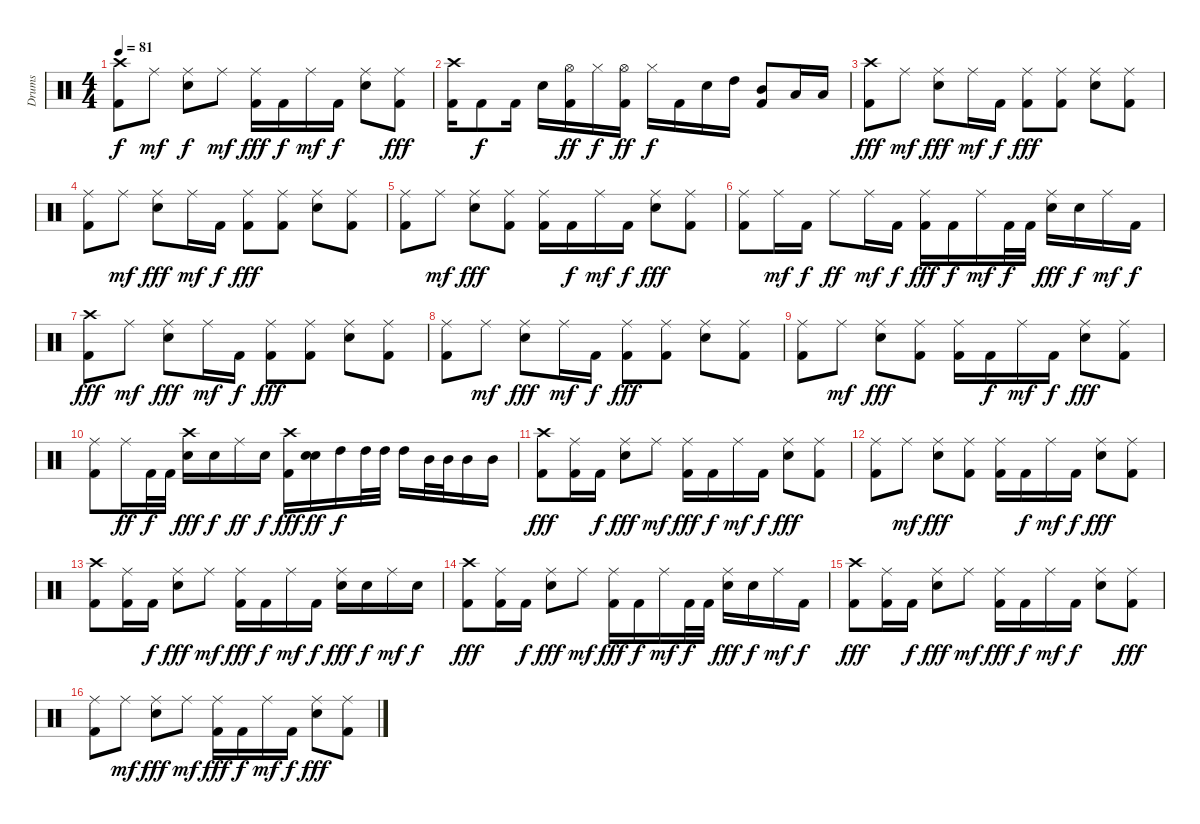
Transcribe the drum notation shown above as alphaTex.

\track ("Drums" "Drums") {instrument percussion}
\staff {score}
\articulation defaults
\ts (4 4)
\tempo 81
\clef neutral
\ks c
("Crash high (hit)" "Kick (hit) 2").8{dy f} "Ride (middle)".8{dy mf} ("Ride (middle)" "Electric Snare (hit)").8{dy f} "Ride (middle)".8{dy mf} ("Ride (middle)" "Kick (hit) 2").16{dy fff} "Kick (hit) 2".16{dy f} "Ride (middle)".16{dy mf} "Kick (hit) 2".16{dy f} ("Ride (middle)" "Electric Snare (hit)").8 ("Ride (middle)" "Kick (hit) 2").8{dy fff} |
("Crash high (hit)" "Kick (hit) 2").16 "Kick (hit) 2".8{dy f} "Kick (hit) 2".16 "Snare (hit)".16 ("Hi-Hat (open)" "Kick (hit) 2").16{dy ff} "Hi-Hat (closed)".16{dy f} ("Hi-Hat (open)" "Kick (hit) 2").16{dy ff} "Hi-Hat (closed)".16{dy f} "Kick (hit) 2".16 "Electric Snare (hit)".16 "High Tom (hit)".16 ("Mid Tom (hit)" "Kick (hit) 2").8 "Low Tom (hit)".16 "Low Tom (hit)".16 |
("Crash high (hit)" "Kick (hit) 2").8{dy fff} "Ride (middle)".8{dy mf} ("Ride (middle)" "Electric Snare (hit)").8{dy fff} "Ride (middle)".16{dy mf} "Kick (hit) 2".16{dy f} ("Ride (middle)" "Kick (hit) 2").8{dy fff} ("Ride (middle)" "Kick (hit) 2").8 ("Ride (middle)" "Electric Snare (hit)").8 ("Ride (middle)" "Kick (hit) 2").8 |
("Ride (middle)" "Kick (hit) 2").8 "Ride (middle)".8{dy mf} ("Ride (middle)" "Electric Snare (hit)").8{dy fff} "Ride (middle)".16{dy mf} "Kick (hit) 2".16{dy f} ("Ride (middle)" "Kick (hit) 2").8{dy fff} ("Ride (middle)" "Kick (hit) 2").8 ("Ride (middle)" "Electric Snare (hit)").8 ("Ride (middle)" "Kick (hit) 2").8 |
("Ride (middle)" "Kick (hit) 2").8 "Ride (middle)".8{dy mf} ("Ride (middle)" "Electric Snare (hit)").8{dy fff} ("Ride (middle)" "Kick (hit) 2").8 ("Ride (middle)" "Kick (hit) 2").16 "Kick (hit) 2".16{dy f} "Ride (middle)".16{dy mf} "Kick (hit) 2".16{dy f} ("Ride (middle)" "Electric Snare (hit)").8{dy fff} ("Ride (middle)" "Kick (hit) 2").8 |
("Ride (middle)" "Kick (hit) 2").8 "Ride (middle)".16{dy mf} "Kick (hit) 2".16{dy f} "Ride (middle)".8{dy ff} "Ride (middle)".16{dy mf} "Kick (hit) 2".16{dy f} ("Ride (middle)" "Kick (hit) 2").16{dy fff} "Kick (hit) 2".16{dy f} "Ride (middle)".16{dy mf} "Kick (hit) 2".32{dy f} "Kick (hit) 2".32 ("Ride (middle)" "Electric Snare (hit)").16{dy fff} "Electric Snare (hit)".16{dy f} "Ride (middle)".16{dy mf} "Kick (hit) 2".16{dy f} |
("Crash high (hit)" "Kick (hit) 2").8{dy fff} "Ride (middle)".8{dy mf} ("Ride (middle)" "Electric Snare (hit)").8{dy fff} "Ride (middle)".16{dy mf} "Kick (hit) 2".16{dy f} ("Ride (middle)" "Kick (hit) 2").8{dy fff} ("Ride (middle)" "Kick (hit) 2").8 ("Ride (middle)" "Electric Snare (hit)").8 ("Ride (middle)" "Kick (hit) 2").8 |
("Ride (middle)" "Kick (hit) 2").8 "Ride (middle)".8{dy mf} ("Ride (middle)" "Electric Snare (hit)").8{dy fff} "Ride (middle)".16{dy mf} "Kick (hit) 2".16{dy f} ("Ride (middle)" "Kick (hit) 2").8{dy fff} ("Ride (middle)" "Kick (hit) 2").8 ("Ride (middle)" "Electric Snare (hit)").8 ("Ride (middle)" "Kick (hit) 2").8 |
("Ride (middle)" "Kick (hit) 2").8 "Ride (middle)".8{dy mf} ("Ride (middle)" "Electric Snare (hit)").8{dy fff} ("Ride (middle)" "Kick (hit) 2").8 ("Ride (middle)" "Kick (hit) 2").16 "Kick (hit) 2".16{dy f} "Ride (middle)".16{dy mf} "Kick (hit) 2".16{dy f} ("Ride (middle)" "Electric Snare (hit)").8{dy fff} ("Ride (middle)" "Kick (hit) 2").8 |
("Ride (middle)" "Kick (hit) 2").8 "Ride (middle)".16{dy ff} "Kick (hit) 2".32{dy f} "Kick (hit) 2".32 ("Crash high (hit)" "Electric Snare (hit)").16{dy fff} "Electric Snare (hit)".16{dy f} "Ride (middle)".16{dy ff} "Electric Snare (hit)".16{dy f} ("Crash high (hit)" "Kick (hit) 2").16{dy fff} ("Electric Snare (hit)" "Electric Snare (hit)").16{dy ff} "High Tom (hit)".16{dy f} "High Tom (hit)".32 "High Tom (hit)".32 "High Tom (hit)".16 "Mid Tom (hit)".32 "Mid Tom (hit)".32 "Mid Tom (hit)".16 "Mid Tom (hit)".16 |
("Crash high (hit)" "Kick (hit) 2").8{dy fff} ("Ride (middle)" "Kick (hit) 2").16 "Kick (hit) 2".16{dy f} ("Ride (middle)" "Electric Snare (hit)").8{dy fff} "Ride (middle)".8{dy mf} ("Ride (middle)" "Kick (hit) 2").16{dy fff} "Kick (hit) 2".16{dy f} "Ride (middle)".16{dy mf} "Kick (hit) 2".16{dy f} ("Ride (middle)" "Electric Snare (hit)").8{dy fff} ("Ride (middle)" "Kick (hit) 2").8 |
("Ride (middle)" "Kick (hit) 2").8 "Ride (middle)".8{dy mf} ("Ride (middle)" "Electric Snare (hit)").8{dy fff} ("Ride (middle)" "Kick (hit) 2").8 ("Ride (middle)" "Kick (hit) 2").16 "Kick (hit) 2".16{dy f} "Ride (middle)".16{dy mf} "Kick (hit) 2".16{dy f} ("Ride (middle)" "Electric Snare (hit)").8{dy fff} ("Ride (middle)" "Kick (hit) 2").8 |
("Crash high (hit)" "Kick (hit) 2").8 ("Ride (middle)" "Kick (hit) 2").16 "Kick (hit) 2".16{dy f} ("Ride (middle)" "Electric Snare (hit)").8{dy fff} "Ride (middle)".8{dy mf} ("Ride (middle)" "Kick (hit) 2").16{dy fff} "Kick (hit) 2".16{dy f} "Ride (middle)".16{dy mf} "Kick (hit) 2".16{dy f} ("Ride (middle)" "Electric Snare (hit)").16{dy fff} "Electric Snare (hit)".16{dy f} "Ride (middle)".16{dy mf} "Electric Snare (hit)".16{dy f} |
("Crash high (hit)" "Kick (hit) 2").8{dy fff} ("Ride (middle)" "Kick (hit) 2").16 "Kick (hit) 2".16{dy f} ("Ride (middle)" "Electric Snare (hit)").8{dy fff} "Ride (middle)".8{dy mf} ("Ride (middle)" "Kick (hit) 2").16{dy fff} "Kick (hit) 2".16{dy f} "Ride (middle)".16{dy mf} "Kick (hit) 2".32{dy f} "Kick (hit) 2".32 ("Ride (middle)" "Electric Snare (hit)").16{dy fff} "Electric Snare (hit)".16{dy f} "Ride (middle)".16{dy mf} "Kick (hit) 2".16{dy f} |
("Crash high (hit)" "Kick (hit) 2").8{dy fff} ("Ride (middle)" "Kick (hit) 2").16 "Kick (hit) 2".16{dy f} ("Ride (middle)" "Electric Snare (hit)").8{dy fff} "Ride (middle)".8{dy mf} ("Ride (middle)" "Kick (hit) 2").16{dy fff} "Kick (hit) 2".16{dy f} "Ride (middle)".16{dy mf} "Kick (hit) 2".16{dy f} ("Ride (middle)" "Electric Snare (hit)").8 ("Ride (middle)" "Kick (hit) 2").8{dy fff} |
("Ride (middle)" "Kick (hit) 2").8 "Ride (middle)".8{dy mf} ("Ride (middle)" "Electric Snare (hit)").8{dy fff} "Ride (middle)".8{dy mf} ("Ride (middle)" "Kick (hit) 2").16{dy fff} "Kick (hit) 2".16{dy f} "Ride (middle)".16{dy mf} "Kick (hit) 2".16{dy f} ("Ride (middle)" "Electric Snare (hit)").8{dy fff} ("Ride (middle)" "Kick (hit) 2").8
